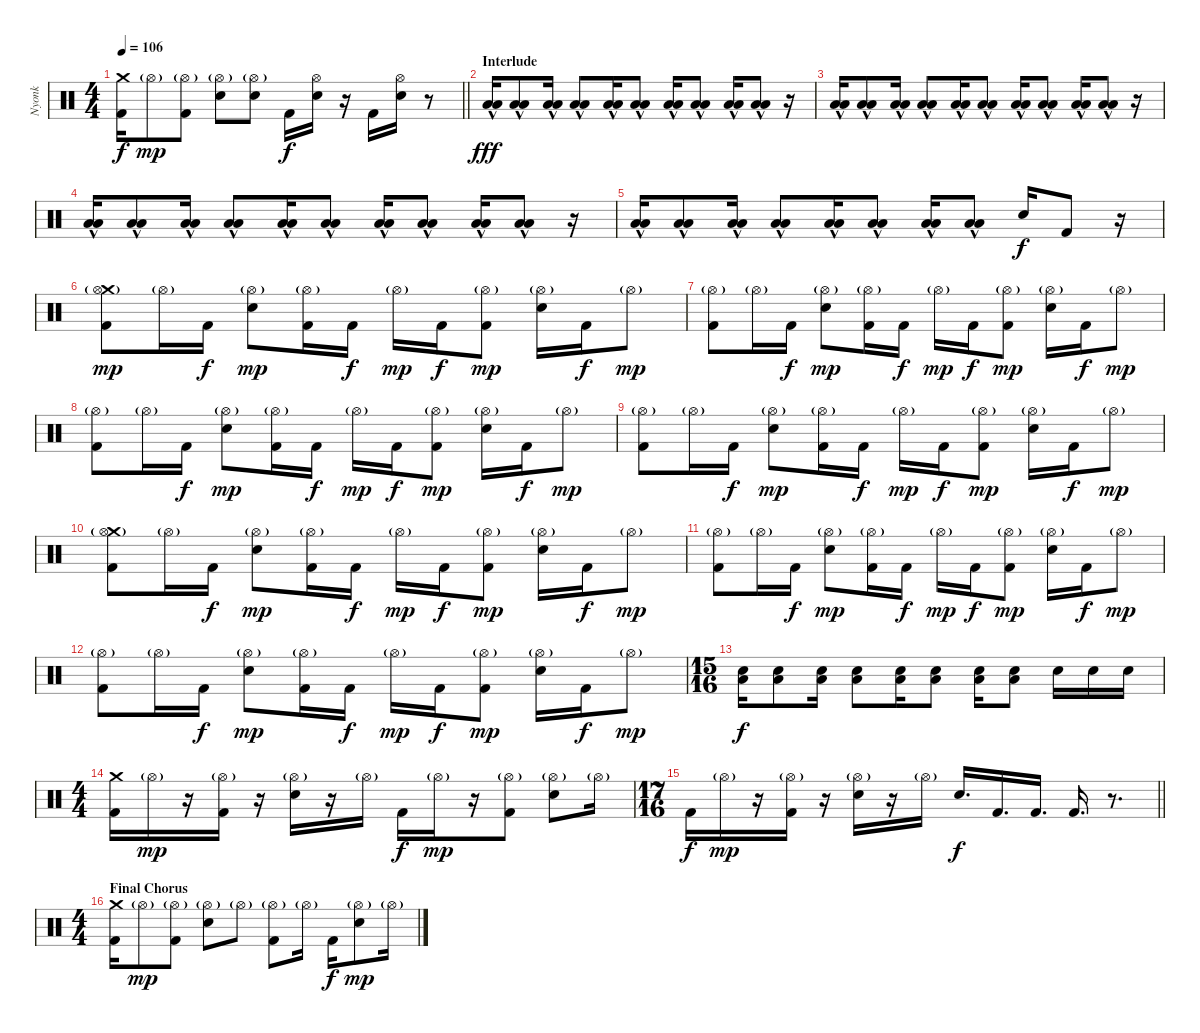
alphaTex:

\track ("Nyonk" "Nyonk") {instrument percussion}
\staff {score}
\articulation defaults
\ts (4 4)
\tempo 106
\clef neutral
\barLineRight lightlight
\ks c
("Crash medium (hit)" "Kick (hit) 2").16{dy f} "Hi-Hat (open)"{g}.8{dy mp} ("Hi-Hat (open)"{g} "Kick (hit) 2").8 ("Hi-Hat (open)"{g} "Electric Snare (hit)").8 ("Hi-Hat (open)"{g} "Electric Snare (hit)").8 "Kick (hit) 2".16{dy f} ("Hi-Hat (open)" "Electric Snare (hit)").16 r.16 "Kick (hit) 2".16 ("Hi-Hat (open)" "Electric Snare (hit)").16 r.8 |
\section ("" "Interlude")
("Low Floor Tom (hit)"{hac} "Low Floor Tom (hit)"{hac}).16{dy fff} ("Low Floor Tom (hit)"{hac} "Low Floor Tom (hit)"{hac}).8 ("Low Floor Tom (hit)"{hac} "Low Floor Tom (hit)"{hac}).16 ("Low Floor Tom (hit)"{hac} "Low Floor Tom (hit)"{hac}).8 ("Low Floor Tom (hit)"{hac} "Low Floor Tom (hit)"{hac}).16 ("Low Floor Tom (hit)"{hac} "Low Floor Tom (hit)"{hac}).8 ("Low Floor Tom (hit)"{hac} "Low Floor Tom (hit)"{hac}).16 ("Low Floor Tom (hit)"{hac} "Low Floor Tom (hit)"{hac}).8 ("Low Floor Tom (hit)"{hac} "Low Floor Tom (hit)"{hac}).16 ("Low Floor Tom (hit)"{hac} "Low Floor Tom (hit)"{hac}).8 r.16 |
("Low Floor Tom (hit)"{hac} "Low Floor Tom (hit)"{hac}).16 ("Low Floor Tom (hit)"{hac} "Low Floor Tom (hit)"{hac}).8 ("Low Floor Tom (hit)"{hac} "Low Floor Tom (hit)"{hac}).16 ("Low Floor Tom (hit)"{hac} "Low Floor Tom (hit)"{hac}).8 ("Low Floor Tom (hit)"{hac} "Low Floor Tom (hit)"{hac}).16 ("Low Floor Tom (hit)"{hac} "Low Floor Tom (hit)"{hac}).8 ("Low Floor Tom (hit)"{hac} "Low Floor Tom (hit)"{hac}).16 ("Low Floor Tom (hit)"{hac} "Low Floor Tom (hit)"{hac}).8 ("Low Floor Tom (hit)"{hac} "Low Floor Tom (hit)"{hac}).16 ("Low Floor Tom (hit)"{hac} "Low Floor Tom (hit)"{hac}).8 r.16 |
("Low Floor Tom (hit)"{hac} "Low Floor Tom (hit)"{hac}).16 ("Low Floor Tom (hit)"{hac} "Low Floor Tom (hit)"{hac}).8 ("Low Floor Tom (hit)"{hac} "Low Floor Tom (hit)"{hac}).16 ("Low Floor Tom (hit)"{hac} "Low Floor Tom (hit)"{hac}).8 ("Low Floor Tom (hit)"{hac} "Low Floor Tom (hit)"{hac}).16 ("Low Floor Tom (hit)"{hac} "Low Floor Tom (hit)"{hac}).8 ("Low Floor Tom (hit)"{hac} "Low Floor Tom (hit)"{hac}).16 ("Low Floor Tom (hit)"{hac} "Low Floor Tom (hit)"{hac}).8 ("Low Floor Tom (hit)"{hac} "Low Floor Tom (hit)"{hac}).16 ("Low Floor Tom (hit)"{hac} "Low Floor Tom (hit)"{hac}).8 r.16 |
("Low Floor Tom (hit)"{hac} "Low Floor Tom (hit)"{hac}).16 ("Low Floor Tom (hit)"{hac} "Low Floor Tom (hit)"{hac}).8 ("Low Floor Tom (hit)"{hac} "Low Floor Tom (hit)"{hac}).16 ("Low Floor Tom (hit)"{hac} "Low Floor Tom (hit)"{hac}).8 ("Low Floor Tom (hit)"{hac} "Low Floor Tom (hit)"{hac}).16 ("Low Floor Tom (hit)"{hac} "Low Floor Tom (hit)"{hac}).8 ("Low Floor Tom (hit)"{hac} "Low Floor Tom (hit)"{hac}).16 ("Low Floor Tom (hit)"{hac} "Low Floor Tom (hit)"{hac}).8 "Electric Snare (hit)".16{dy f} "Kick (hit) 2".8 r.16 |
("Crash medium (hit)" "Hi-Hat (open)"{g} "Kick (hit) 2").8{dy mp} "Hi-Hat (open)"{g}.16 "Kick (hit) 2".16{dy f} ("Hi-Hat (open)"{g} "Electric Snare (hit)").8{dy mp} ("Hi-Hat (open)"{g} "Kick (hit) 2").16 "Kick (hit) 2".16{dy f} "Hi-Hat (open)"{g}.16{dy mp} "Kick (hit) 2".16{dy f} ("Hi-Hat (open)"{g} "Kick (hit) 2").8{dy mp} ("Hi-Hat (open)"{g} "Electric Snare (hit)").16 "Kick (hit) 2".16{dy f} "Hi-Hat (open)"{g}.8{dy mp} |
("Hi-Hat (open)"{g} "Kick (hit) 2").8 "Hi-Hat (open)"{g}.16 "Kick (hit) 2".16{dy f} ("Hi-Hat (open)"{g} "Electric Snare (hit)").8{dy mp} ("Hi-Hat (open)"{g} "Kick (hit) 2").16 "Kick (hit) 2".16{dy f} "Hi-Hat (open)"{g}.16{dy mp} "Kick (hit) 2".16{dy f} ("Hi-Hat (open)"{g} "Kick (hit) 2").8{dy mp} ("Hi-Hat (open)"{g} "Electric Snare (hit)").16 "Kick (hit) 2".16{dy f} "Hi-Hat (open)"{g}.8{dy mp} |
("Hi-Hat (open)"{g} "Kick (hit) 2").8 "Hi-Hat (open)"{g}.16 "Kick (hit) 2".16{dy f} ("Hi-Hat (open)"{g} "Electric Snare (hit)").8{dy mp} ("Hi-Hat (open)"{g} "Kick (hit) 2").16 "Kick (hit) 2".16{dy f} "Hi-Hat (open)"{g}.16{dy mp} "Kick (hit) 2".16{dy f} ("Hi-Hat (open)"{g} "Kick (hit) 2").8{dy mp} ("Hi-Hat (open)"{g} "Electric Snare (hit)").16 "Kick (hit) 2".16{dy f} "Hi-Hat (open)"{g}.8{dy mp} |
("Hi-Hat (open)"{g} "Kick (hit) 2").8 "Hi-Hat (open)"{g}.16 "Kick (hit) 2".16{dy f} ("Hi-Hat (open)"{g} "Electric Snare (hit)").8{dy mp} ("Hi-Hat (open)"{g} "Kick (hit) 2").16 "Kick (hit) 2".16{dy f} "Hi-Hat (open)"{g}.16{dy mp} "Kick (hit) 2".16{dy f} ("Hi-Hat (open)"{g} "Kick (hit) 2").8{dy mp} ("Hi-Hat (open)"{g} "Electric Snare (hit)").16 "Kick (hit) 2".16{dy f} "Hi-Hat (open)"{g}.8{dy mp} |
("Crash medium (hit)" "Hi-Hat (open)"{g} "Kick (hit) 2").8 "Hi-Hat (open)"{g}.16 "Kick (hit) 2".16{dy f} ("Hi-Hat (open)"{g} "Electric Snare (hit)").8{dy mp} ("Hi-Hat (open)"{g} "Kick (hit) 2").16 "Kick (hit) 2".16{dy f} "Hi-Hat (open)"{g}.16{dy mp} "Kick (hit) 2".16{dy f} ("Hi-Hat (open)"{g} "Kick (hit) 2").8{dy mp} ("Hi-Hat (open)"{g} "Electric Snare (hit)").16 "Kick (hit) 2".16{dy f} "Hi-Hat (open)"{g}.8{dy mp} |
("Hi-Hat (open)"{g} "Kick (hit) 2").8 "Hi-Hat (open)"{g}.16 "Kick (hit) 2".16{dy f} ("Hi-Hat (open)"{g} "Electric Snare (hit)").8{dy mp} ("Hi-Hat (open)"{g} "Kick (hit) 2").16 "Kick (hit) 2".16{dy f} "Hi-Hat (open)"{g}.16{dy mp} "Kick (hit) 2".16{dy f} ("Hi-Hat (open)"{g} "Kick (hit) 2").8{dy mp} ("Hi-Hat (open)"{g} "Electric Snare (hit)").16 "Kick (hit) 2".16{dy f} "Hi-Hat (open)"{g}.8{dy mp} |
("Hi-Hat (open)"{g} "Kick (hit) 2").8 "Hi-Hat (open)"{g}.16 "Kick (hit) 2".16{dy f} ("Hi-Hat (open)"{g} "Electric Snare (hit)").8{dy mp} ("Hi-Hat (open)"{g} "Kick (hit) 2").16 "Kick (hit) 2".16{dy f} "Hi-Hat (open)"{g}.16{dy mp} "Kick (hit) 2".16{dy f} ("Hi-Hat (open)"{g} "Kick (hit) 2").8{dy mp} ("Hi-Hat (open)"{g} "Electric Snare (hit)").16 "Kick (hit) 2".16{dy f} "Hi-Hat (open)"{g}.8{dy mp} |
\ts (15 16)
("Electric Snare (hit)" "Low Floor Tom (hit)").16{dy f} ("Electric Snare (hit)" "Low Floor Tom (hit)").8 ("Electric Snare (hit)" "Low Floor Tom (hit)").16 ("Electric Snare (hit)" "Low Floor Tom (hit)").8 ("Electric Snare (hit)" "Low Floor Tom (hit)").16 ("Electric Snare (hit)" "Low Floor Tom (hit)").8 ("Electric Snare (hit)" "Low Floor Tom (hit)").16 ("Electric Snare (hit)" "Low Floor Tom (hit)").8 "Electric Snare (hit)".16 "Electric Snare (hit)".16 "Electric Snare (hit)".16 |
\ts (4 4)
("Crash medium (hit)" "Kick (hit) 2").16 "Hi-Hat (open)"{g}.16{dy mp} r.16 ("Hi-Hat (open)"{g} "Kick (hit) 2").16 r.16 ("Hi-Hat (open)"{g} "Electric Snare (hit)").16 r.16 "Hi-Hat (open)"{g}.16 "Kick (hit) 2".16{dy f} "Hi-Hat (open)"{g}.16{dy mp} r.16 ("Hi-Hat (open)"{g} "Kick (hit) 2").8 ("Hi-Hat (open)"{g} "Electric Snare (hit)").8 "Hi-Hat (open)"{g}.16 |
\ts (17 16)
\barLineRight lightlight "Kick (hit) 2".16{dy f} "Hi-Hat (open)"{g}.16{dy mp}
r.16 ("Hi-Hat (open)"{g} "Kick (hit) 2").16 r.16 ("Hi-Hat (open)"{g} "Electric Snare (hit)").16 r.16 "Hi-Hat (open)"{g}.16 "Electric Snare (hit)".16{d dy f} "Kick (hit) 2".16{d} "Kick (hit) 2".16{d} "Kick (hit) 2".16{d} r.8{d} |
\ts (4 4)
\section ("" "Final Chorus")
("Crash medium (hit)" "Kick (hit) 2").16 "Hi-Hat (open)"{g}.8{dy mp} ("Hi-Hat (open)"{g} "Kick (hit) 2").8 ("Hi-Hat (open)"{g} "Electric Snare (hit)").8 "Hi-Hat (open)"{g}.8 ("Hi-Hat (open)"{g} "Kick (hit) 2").8 "Hi-Hat (open)"{g}.16 "Kick (hit) 2".16{dy f} ("Hi-Hat (open)"{g} "Electric Snare (hit)").8{dy mp} "Hi-Hat (open)"{g}.16
